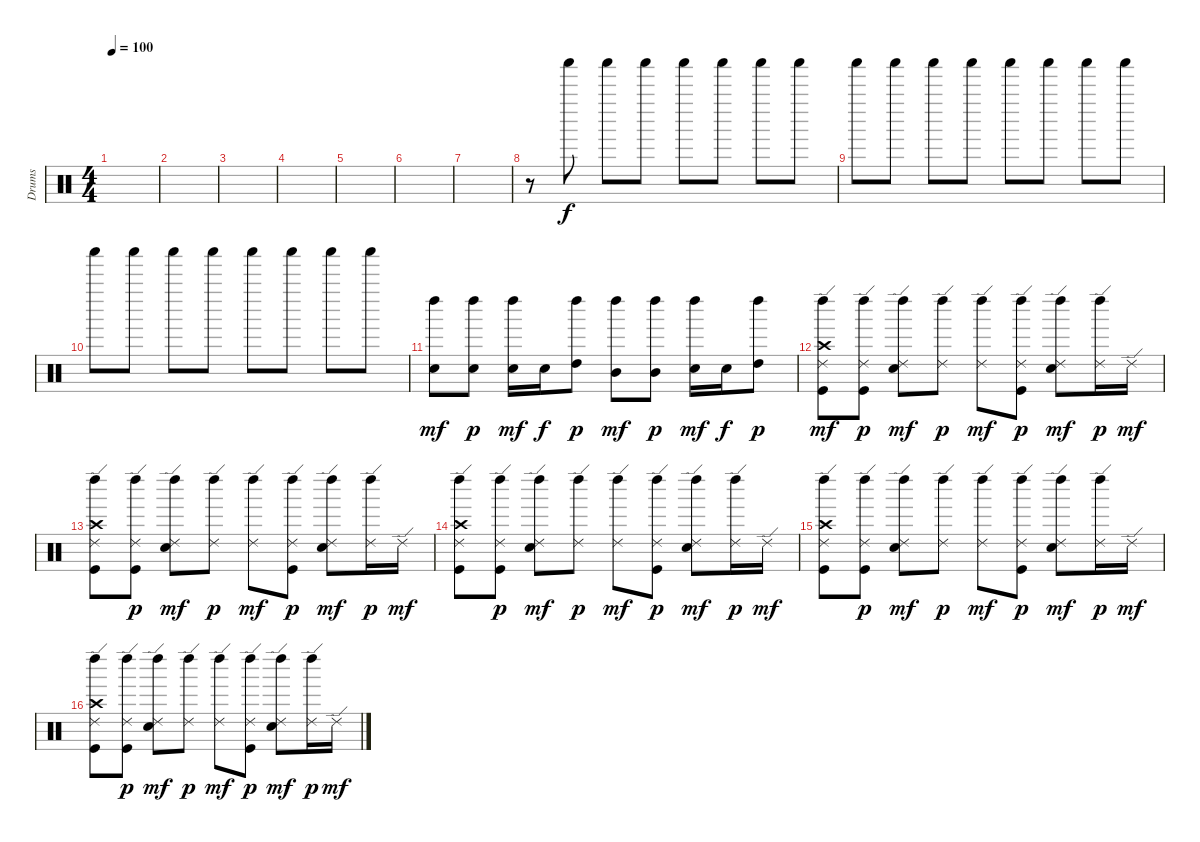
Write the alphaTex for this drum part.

\track ("Drums" "Drums") {instrument percussion}
\staff {score}
\articulation defaults
\ts (4 4)
\tempo 100
\clef neutral
\ks c
|
|
|
|
|
|
|
r.8 "Shaker (hit)".8 "Shaker (hit)".8 "Shaker (hit)".8 "Shaker (hit)".8 "Shaker (hit)".8 "Shaker (hit)".8 "Shaker (hit)".8 |
"Shaker (hit)".8 "Shaker (hit)".8 "Shaker (hit)".8 "Shaker (hit)".8 "Shaker (hit)".8 "Shaker (hit)".8 "Shaker (hit)".8 "Shaker (hit)".8 |
"Shaker (hit)".8 "Shaker (hit)".8 "Shaker (hit)".8 "Shaker (hit)".8 "Shaker (hit)".8 "Shaker (hit)".8 "Shaker (hit)".8 "Shaker (hit)".8 |
("Electric Snare (hit)" "Left Maraca (hit)").8{dy mf} ("Electric Snare (hit)" "Left Maraca (hit)").8{dy p} ("Electric Snare (hit)" "Left Maraca (hit)").16{dy mf} "Electric Snare (hit)".16{dy f} ("High Tom (hit)" "Left Maraca (hit)").8{dy p} ("Mid Tom (hit)" "Left Maraca (hit)").8{dy mf} ("Mid Tom (hit)" "Left Maraca (hit)").8{dy p} ("Electric Snare (hit)" "Left Maraca (hit)").16{dy mf} "Electric Snare (hit)".16{dy f} ("High Tom (hit)" "Left Maraca (hit)").8{dy p} |
("Kick (hit)" "Crash high (hit)" "Ride (edge) 2" "Left Maraca (hit)").8{dy mf} ("Kick (hit)" "Ride (edge) 2" "Left Maraca (hit)").8{dy p} ("Electric Snare (hit)" "Ride (edge) 2" "Left Maraca (hit)").8{dy mf} ("Ride (edge) 2" "Left Maraca (hit)").8{dy p} ("Ride (edge) 2" "Left Maraca (hit)").8{dy mf} ("Kick (hit)" "Ride (edge) 2" "Left Maraca (hit)").8{dy p} ("Electric Snare (hit)" "Ride (edge) 2" "Left Maraca (hit)").8{dy mf} ("Ride (edge) 2" "Left Maraca (hit)").16{dy p} "Ride (edge) 2".16{dy mf} |
("Kick (hit)" "Crash high (hit)" "Ride (edge) 2" "Left Maraca (hit)").8 ("Kick (hit)" "Ride (edge) 2" "Left Maraca (hit)").8{dy p} ("Electric Snare (hit)" "Ride (edge) 2" "Left Maraca (hit)").8{dy mf} ("Ride (edge) 2" "Left Maraca (hit)").8{dy p} ("Ride (edge) 2" "Left Maraca (hit)").8{dy mf} ("Kick (hit)" "Ride (edge) 2" "Left Maraca (hit)").8{dy p} ("Electric Snare (hit)" "Ride (edge) 2" "Left Maraca (hit)").8{dy mf} ("Ride (edge) 2" "Left Maraca (hit)").16{dy p} "Ride (edge) 2".16{dy mf} |
("Kick (hit)" "Crash high (hit)" "Ride (edge) 2" "Left Maraca (hit)").8 ("Kick (hit)" "Ride (edge) 2" "Left Maraca (hit)").8{dy p} ("Electric Snare (hit)" "Ride (edge) 2" "Left Maraca (hit)").8{dy mf} ("Ride (edge) 2" "Left Maraca (hit)").8{dy p} ("Ride (edge) 2" "Left Maraca (hit)").8{dy mf} ("Kick (hit)" "Ride (edge) 2" "Left Maraca (hit)").8{dy p} ("Electric Snare (hit)" "Ride (edge) 2" "Left Maraca (hit)").8{dy mf} ("Ride (edge) 2" "Left Maraca (hit)").16{dy p} "Ride (edge) 2".16{dy mf} |
("Kick (hit)" "Crash high (hit)" "Ride (edge) 2" "Left Maraca (hit)").8 ("Kick (hit)" "Ride (edge) 2" "Left Maraca (hit)").8{dy p} ("Electric Snare (hit)" "Ride (edge) 2" "Left Maraca (hit)").8{dy mf} ("Ride (edge) 2" "Left Maraca (hit)").8{dy p} ("Ride (edge) 2" "Left Maraca (hit)").8{dy mf} ("Kick (hit)" "Ride (edge) 2" "Left Maraca (hit)").8{dy p} ("Electric Snare (hit)" "Ride (edge) 2" "Left Maraca (hit)").8{dy mf} ("Ride (edge) 2" "Left Maraca (hit)").16{dy p} "Ride (edge) 2".16{dy mf} |
("Kick (hit)" "Crash high (hit)" "Ride (edge) 2" "Left Maraca (hit)").8 ("Kick (hit)" "Ride (edge) 2" "Left Maraca (hit)").8{dy p} ("Electric Snare (hit)" "Ride (edge) 2" "Left Maraca (hit)").8{dy mf} ("Ride (edge) 2" "Left Maraca (hit)").8{dy p} ("Ride (edge) 2" "Left Maraca (hit)").8{dy mf} ("Kick (hit)" "Ride (edge) 2" "Left Maraca (hit)").8{dy p} ("Electric Snare (hit)" "Ride (edge) 2" "Left Maraca (hit)").8{dy mf} ("Ride (edge) 2" "Left Maraca (hit)").16{dy p} "Ride (edge) 2".16{dy mf}
